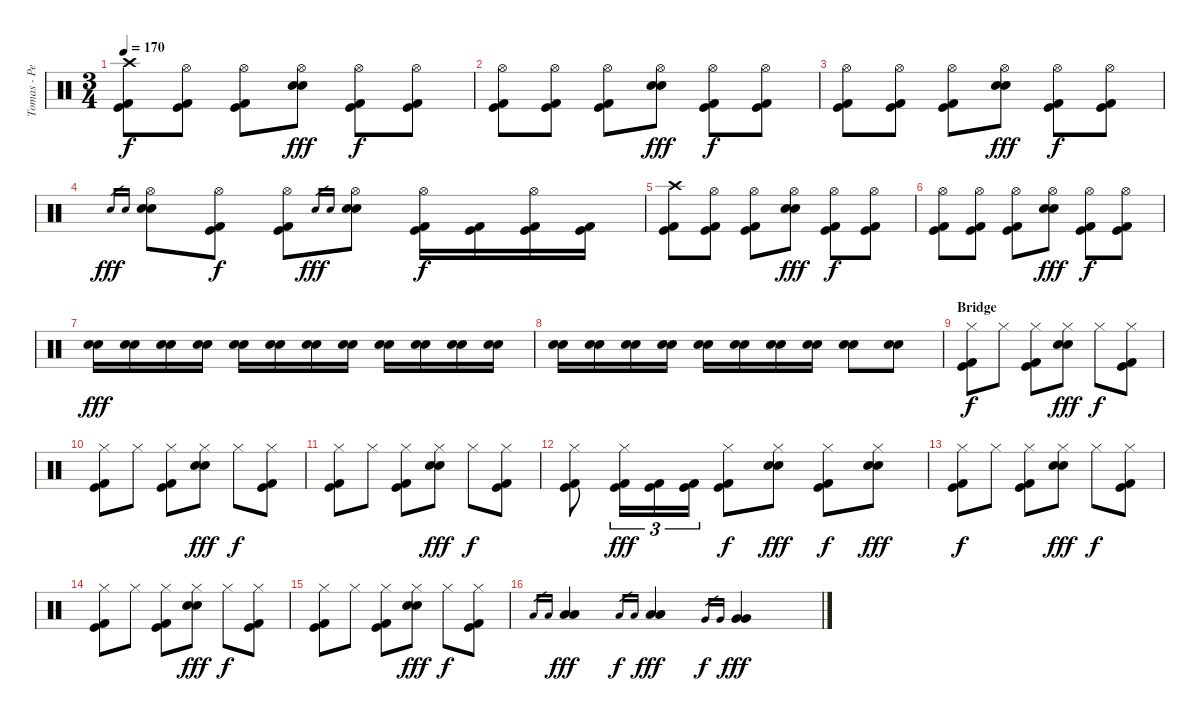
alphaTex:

\track ("Tomas - Percussions" "Tomas - Pe") {instrument percussion}
\staff {score}
\articulation defaults
\ts (3 4)
\tempo 170
\clef neutral
\ks c
("Crash high (hit)" "Kick (hit)" "Kick (hit) 2").8{dy f} ("Hi-Hat (open)" "Kick (hit)" "Kick (hit) 2").8 ("Hi-Hat (open)" "Kick (hit)" "Kick (hit) 2").8 ("Hi-Hat (open)" "Electric Snare (hit)" "Electric Snare (hit)").8{dy fff} ("Hi-Hat (open)" "Kick (hit)" "Kick (hit) 2").8{dy f} ("Hi-Hat (open)" "Kick (hit)" "Kick (hit) 2").8 |
("Hi-Hat (open)" "Kick (hit)" "Kick (hit) 2").8 ("Hi-Hat (open)" "Kick (hit)" "Kick (hit) 2").8 ("Hi-Hat (open)" "Kick (hit)" "Kick (hit) 2").8 ("Hi-Hat (open)" "Electric Snare (hit)" "Electric Snare (hit)").8{dy fff} ("Hi-Hat (open)" "Kick (hit)" "Kick (hit) 2").8{dy f} ("Hi-Hat (open)" "Kick (hit)" "Kick (hit) 2").8 |
("Hi-Hat (open)" "Kick (hit)" "Kick (hit) 2").8 ("Hi-Hat (open)" "Kick (hit)" "Kick (hit) 2").8 ("Hi-Hat (open)" "Kick (hit)" "Kick (hit) 2").8 ("Hi-Hat (open)" "Electric Snare (hit)" "Electric Snare (hit)").8{dy fff} ("Hi-Hat (open)" "Kick (hit)" "Kick (hit) 2").8{dy f} ("Hi-Hat (open)" "Kick (hit)" "Kick (hit) 2").8 |
"Electric Snare (hit)".16{gr dy fff} "Electric Snare (hit)".16{gr} ("Hi-Hat (open)" "Electric Snare (hit)" "Electric Snare (hit)").8 ("Hi-Hat (open)" "Kick (hit)" "Kick (hit) 2").8{dy f} ("Hi-Hat (open)" "Kick (hit)" "Kick (hit) 2").8 "Electric Snare (hit)".16{gr dy fff} "Electric Snare (hit)".16{gr} ("Hi-Hat (open)" "Electric Snare (hit)" "Electric Snare (hit)").8 ("Hi-Hat (open)" "Kick (hit)" "Kick (hit) 2").16{dy f} ("Kick (hit)" "Kick (hit) 2").16 ("Hi-Hat (open)" "Kick (hit)" "Kick (hit) 2").16 ("Kick (hit)" "Kick (hit) 2").16 |
("Crash high (hit)" "Kick (hit)" "Kick (hit) 2").8 ("Hi-Hat (open)" "Kick (hit)" "Kick (hit) 2").8 ("Hi-Hat (open)" "Kick (hit)" "Kick (hit) 2").8 ("Hi-Hat (open)" "Electric Snare (hit)" "Electric Snare (hit)").8{dy fff} ("Hi-Hat (open)" "Kick (hit)" "Kick (hit) 2").8{dy f} ("Hi-Hat (open)" "Kick (hit)" "Kick (hit) 2").8 |
("Hi-Hat (open)" "Kick (hit)" "Kick (hit) 2").8 ("Hi-Hat (open)" "Kick (hit)" "Kick (hit) 2").8 ("Hi-Hat (open)" "Kick (hit)" "Kick (hit) 2").8 ("Hi-Hat (open)" "Electric Snare (hit)" "Electric Snare (hit)").8{dy fff} ("Hi-Hat (open)" "Kick (hit)" "Kick (hit) 2").8{dy f} ("Hi-Hat (open)" "Kick (hit)" "Kick (hit) 2").8 |
("Electric Snare (hit)" "Electric Snare (hit)").16{dy fff} ("Electric Snare (hit)" "Electric Snare (hit)").16 ("Electric Snare (hit)" "Electric Snare (hit)").16 ("Electric Snare (hit)" "Electric Snare (hit)").16 ("Electric Snare (hit)" "Electric Snare (hit)").16 ("Electric Snare (hit)" "Electric Snare (hit)").16 ("Electric Snare (hit)" "Electric Snare (hit)").16 ("Electric Snare (hit)" "Electric Snare (hit)").16 ("Electric Snare (hit)" "Electric Snare (hit)").16 ("Electric Snare (hit)" "Electric Snare (hit)").16 ("Electric Snare (hit)" "Electric Snare (hit)").16 ("Electric Snare (hit)" "Electric Snare (hit)").16 |
("Electric Snare (hit)" "Electric Snare (hit)").16 ("Electric Snare (hit)" "Electric Snare (hit)").16 ("Electric Snare (hit)" "Electric Snare (hit)").16 ("Electric Snare (hit)" "Electric Snare (hit)").16 ("Electric Snare (hit)" "Electric Snare (hit)").16 ("Electric Snare (hit)" "Electric Snare (hit)").16 ("Electric Snare (hit)" "Electric Snare (hit)").16 ("Electric Snare (hit)" "Electric Snare (hit)").16 ("Electric Snare (hit)" "Electric Snare (hit)").8 ("Electric Snare (hit)" "Electric Snare (hit)").8 |
\section ("" "Bridge")
("Hi-Hat (closed)" "Kick (hit)" "Kick (hit) 2").8{dy f} "Hi-Hat (closed)".8 ("Hi-Hat (closed)" "Kick (hit)" "Kick (hit) 2").8 ("Hi-Hat (closed)" "Electric Snare (hit)" "Electric Snare (hit)").8{dy fff} "Hi-Hat (closed)".8{dy f} ("Hi-Hat (closed)" "Kick (hit)" "Kick (hit) 2").8 |
("Hi-Hat (closed)" "Kick (hit)" "Kick (hit) 2").8 "Hi-Hat (closed)".8 ("Hi-Hat (closed)" "Kick (hit)" "Kick (hit) 2").8 ("Hi-Hat (closed)" "Electric Snare (hit)" "Electric Snare (hit)").8{dy fff} "Hi-Hat (closed)".8{dy f} ("Hi-Hat (closed)" "Kick (hit)" "Kick (hit) 2").8 |
("Hi-Hat (closed)" "Kick (hit)" "Kick (hit) 2").8 "Hi-Hat (closed)".8 ("Hi-Hat (closed)" "Kick (hit)" "Kick (hit) 2").8 ("Hi-Hat (closed)" "Electric Snare (hit)" "Electric Snare (hit)").8{dy fff} "Hi-Hat (closed)".8{dy f} ("Hi-Hat (closed)" "Kick (hit)" "Kick (hit) 2").8 |
("Hi-Hat (closed)" "Kick (hit)" "Kick (hit) 2").8 ("Hi-Hat (closed)" "Kick (hit)" "Kick (hit) 2").16{tu (3 2) dy fff} ("Kick (hit)" "Kick (hit) 2").16{tu (3 2)} ("Kick (hit)" "Kick (hit) 2").16{tu (3 2)} ("Hi-Hat (closed)" "Kick (hit)" "Kick (hit) 2").8{dy f} ("Hi-Hat (closed)" "Electric Snare (hit)" "Electric Snare (hit)").8{dy fff} ("Hi-Hat (closed)" "Kick (hit)" "Kick (hit) 2").8{dy f} ("Hi-Hat (closed)" "Electric Snare (hit)" "Electric Snare (hit)").8{dy fff} |
("Hi-Hat (closed)" "Kick (hit)" "Kick (hit) 2").8{dy f} "Hi-Hat (closed)".8 ("Hi-Hat (closed)" "Kick (hit)" "Kick (hit) 2").8 ("Hi-Hat (closed)" "Electric Snare (hit)" "Electric Snare (hit)").8{dy fff} "Hi-Hat (closed)".8{dy f} ("Hi-Hat (closed)" "Kick (hit)" "Kick (hit) 2").8 |
("Hi-Hat (closed)" "Kick (hit)" "Kick (hit) 2").8 "Hi-Hat (closed)".8 ("Hi-Hat (closed)" "Kick (hit)" "Kick (hit) 2").8 ("Hi-Hat (closed)" "Electric Snare (hit)" "Electric Snare (hit)").8{dy fff} "Hi-Hat (closed)".8{dy f} ("Hi-Hat (closed)" "Kick (hit)" "Kick (hit) 2").8 |
("Hi-Hat (closed)" "Kick (hit)" "Kick (hit) 2").8 "Hi-Hat (closed)".8 ("Hi-Hat (closed)" "Kick (hit)" "Kick (hit) 2").8 ("Hi-Hat (closed)" "Electric Snare (hit)" "Electric Snare (hit)").8{dy fff} "Hi-Hat (closed)".8{dy f} ("Hi-Hat (closed)" "Kick (hit)" "Kick (hit) 2").8 |
"Low Tom (hit)".16{gr} "Low Tom (hit)".16{gr} ("Low Tom (hit)" "Low Tom (hit)").4{dy fff} "Low Floor Tom (hit)".16{gr dy f} "Low Floor Tom (hit)".16{gr} ("Low Floor Tom (hit)" "Low Floor Tom (hit)").4{dy fff} "Very Low Tom (hit)".16{gr dy f} "Very Low Tom (hit)".16{gr} ("Very Low Tom (hit)" "Very Low Tom (hit)").4{dy fff}
